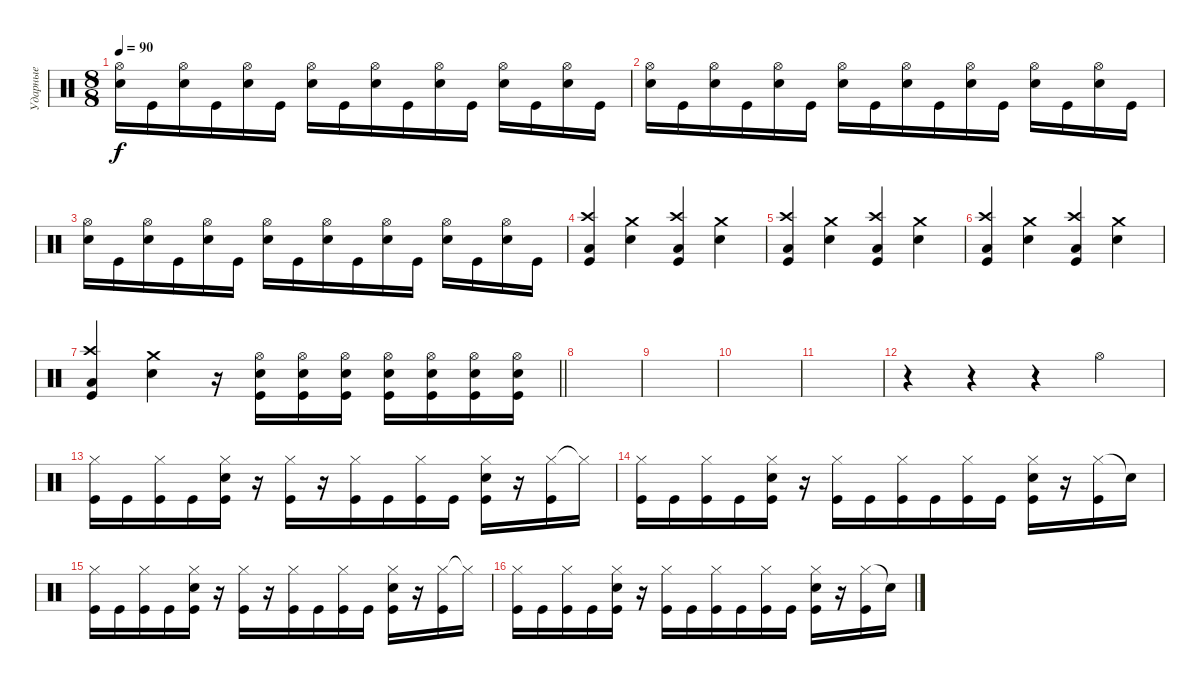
\track ("Ударные" "Ударные") {instrument percussion}
\staff {score}
\articulation defaults
\ts (8 8)
\tempo 90
\clef neutral
\ks c
("Hi-Hat (open)" "Electric Snare (hit)").16{dy f} "Kick (hit)".16 ("Hi-Hat (open)" "Electric Snare (hit)").16 "Kick (hit)".16 ("Hi-Hat (open)" "Electric Snare (hit)").16 "Kick (hit)".16 ("Hi-Hat (open)" "Electric Snare (hit)").16 "Kick (hit)".16 ("Hi-Hat (open)" "Electric Snare (hit)").16 "Kick (hit)".16 ("Hi-Hat (open)" "Electric Snare (hit)").16 "Kick (hit)".16 ("Hi-Hat (open)" "Electric Snare (hit)").16 "Kick (hit)".16 ("Hi-Hat (open)" "Electric Snare (hit)").16 "Kick (hit)".16 |
("Hi-Hat (open)" "Electric Snare (hit)").16 "Kick (hit)".16 ("Hi-Hat (open)" "Electric Snare (hit)").16 "Kick (hit)".16 ("Hi-Hat (open)" "Electric Snare (hit)").16 "Kick (hit)".16 ("Hi-Hat (open)" "Electric Snare (hit)").16 "Kick (hit)".16 ("Hi-Hat (open)" "Electric Snare (hit)").16 "Kick (hit)".16 ("Hi-Hat (open)" "Electric Snare (hit)").16 "Kick (hit)".16 ("Hi-Hat (open)" "Electric Snare (hit)").16 "Kick (hit)".16 ("Hi-Hat (open)" "Electric Snare (hit)").16 "Kick (hit)".16 |
("Hi-Hat (open)" "Electric Snare (hit)").16 "Kick (hit)".16 ("Hi-Hat (open)" "Electric Snare (hit)").16 "Kick (hit)".16 ("Hi-Hat (open)" "Electric Snare (hit)").16 "Kick (hit)".16 ("Hi-Hat (open)" "Electric Snare (hit)").16 "Kick (hit)".16 ("Hi-Hat (open)" "Electric Snare (hit)").16 "Kick (hit)".16 ("Hi-Hat (open)" "Electric Snare (hit)").16 "Kick (hit)".16 ("Hi-Hat (open)" "Electric Snare (hit)").16 "Kick (hit)".16 ("Hi-Hat (open)" "Electric Snare (hit)").16 "Kick (hit)".16 |
("Crash high (hit)" "Kick (hit)" "Low Tom (hit)").4 ("Crash medium (hit)" "Electric Snare (hit)").4 ("Crash high (hit)" "Kick (hit)" "Low Floor Tom (hit)").4 ("Crash medium (hit)" "Electric Snare (hit)").4 |
("Crash high (hit)" "Kick (hit)" "Low Tom (hit)").4 ("Crash medium (hit)" "Electric Snare (hit)").4 ("Crash high (hit)" "Kick (hit)" "Low Floor Tom (hit)").4 ("Crash medium (hit)" "Electric Snare (hit)").4 |
("Crash high (hit)" "Kick (hit)" "Low Tom (hit)").4 ("Crash medium (hit)" "Electric Snare (hit)").4 ("Crash high (hit)" "Kick (hit)" "Low Floor Tom (hit)").4 ("Crash medium (hit)" "Electric Snare (hit)").4 |
\barLineRight lightlight
("Crash high (hit)" "Kick (hit)" "Low Tom (hit)").4 ("Crash medium (hit)" "Electric Snare (hit)").4 r.16 ("Hi-Hat (open)" "Electric Snare (hit)" "Kick (hit)").16 ("Hi-Hat (open)" "Electric Snare (hit)" "Kick (hit)").16 ("Hi-Hat (open)" "Electric Snare (hit)" "Kick (hit)").16 ("Hi-Hat (open)" "Electric Snare (hit)" "Kick (hit)").16 ("Hi-Hat (open)" "Electric Snare (hit)" "Kick (hit)").16 ("Hi-Hat (open)" "Electric Snare (hit)" "Kick (hit)").16 ("Hi-Hat (open)" "Electric Snare (hit)" "Kick (hit)").16 |
\section ("" "")
|
|
|
|
r.4 r.4 r.4 "Hi-Hat (open)".4 |
("Hi-Hat (closed)" "Kick (hit)").16 "Kick (hit)".16 ("Hi-Hat (closed)" "Kick (hit)").16 "Kick (hit)".16 ("Hi-Hat (closed)" "Kick (hit)" "Electric Snare (hit)").16 r.16 ("Hi-Hat (closed)" "Kick (hit)").16 r.16 ("Hi-Hat (closed)" "Kick (hit)").16 "Kick (hit)".16 ("Hi-Hat (closed)" "Kick (hit)").16 "Kick (hit)".16 ("Hi-Hat (closed)" "Kick (hit)" "Electric Snare (hit)").16 r.16 ("Hi-Hat (closed)" "Kick (hit)").16 "Hi-Hat (closed)"{t}.16 |
("Hi-Hat (closed)" "Kick (hit)").16 "Kick (hit)".16 ("Hi-Hat (closed)" "Kick (hit)").16 "Kick (hit)".16 ("Hi-Hat (closed)" "Kick (hit)" "Electric Snare (hit)").16 r.16 ("Hi-Hat (closed)" "Kick (hit)").16 "Kick (hit)".16 ("Hi-Hat (closed)" "Kick (hit)").16 "Kick (hit)".16 ("Hi-Hat (closed)" "Kick (hit)").16 "Kick (hit)".16 ("Hi-Hat (closed)" "Kick (hit)" "Electric Snare (hit)").16 r.16 ("Hi-Hat (closed)" "Kick (hit)").16 "Snare (hit)"{t}.16 |
("Hi-Hat (closed)" "Kick (hit)").16 "Kick (hit)".16 ("Hi-Hat (closed)" "Kick (hit)").16 "Kick (hit)".16 ("Hi-Hat (closed)" "Kick (hit)" "Electric Snare (hit)").16 r.16 ("Hi-Hat (closed)" "Kick (hit)").16 r.16 ("Hi-Hat (closed)" "Kick (hit)").16 "Kick (hit)".16 ("Hi-Hat (closed)" "Kick (hit)").16 "Kick (hit)".16 ("Hi-Hat (closed)" "Kick (hit)" "Electric Snare (hit)").16 r.16 ("Hi-Hat (closed)" "Kick (hit)").16 "Hi-Hat (closed)"{t}.16 |
("Hi-Hat (closed)" "Kick (hit)").16 "Kick (hit)".16 ("Hi-Hat (closed)" "Kick (hit)").16 "Kick (hit)".16 ("Hi-Hat (closed)" "Kick (hit)" "Electric Snare (hit)").16 r.16 ("Hi-Hat (closed)" "Kick (hit)").16 "Kick (hit)".16 ("Hi-Hat (closed)" "Kick (hit)").16 "Kick (hit)".16 ("Hi-Hat (closed)" "Kick (hit)").16 "Kick (hit)".16 ("Hi-Hat (closed)" "Kick (hit)" "Electric Snare (hit)").16 r.16 ("Hi-Hat (closed)" "Kick (hit)").16 "Snare (hit)"{t}.16
